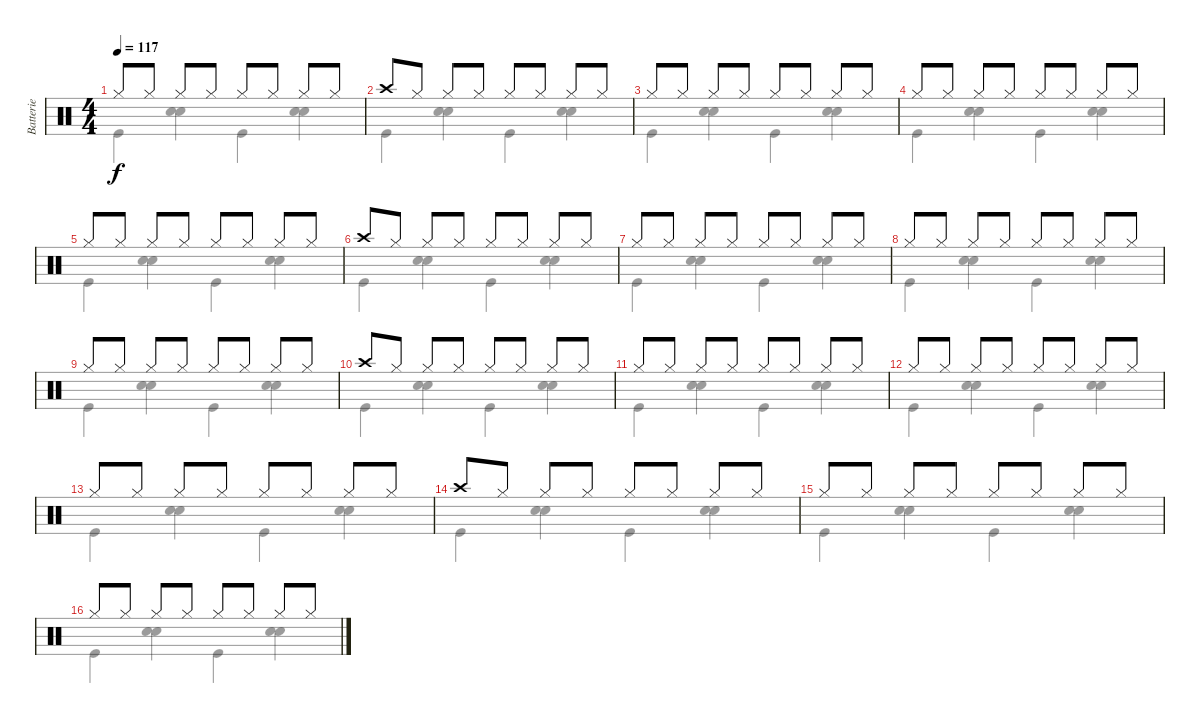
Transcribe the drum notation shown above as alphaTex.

\track ("Batterie" "Batterie") {instrument percussion}
\staff {score}
\articulation defaults
\voice
\ts (4 4)
\tempo 117
\clef neutral
\ks c "Hi-Hat (closed)".8{dy f} "Hi-Hat (closed)".8 "Hi-Hat (closed)".8 "Hi-Hat (closed)".8 "Hi-Hat (closed)".8 "Hi-Hat (closed)".8 "Hi-Hat (closed)".8 "Hi-Hat (closed)".8
|
"Crash high (hit)".8 "Hi-Hat (closed)".8 "Hi-Hat (closed)".8 "Hi-Hat (closed)".8 "Hi-Hat (closed)".8 "Hi-Hat (closed)".8 "Hi-Hat (closed)".8 "Hi-Hat (closed)".8 |
"Hi-Hat (closed)".8 "Hi-Hat (closed)".8 "Hi-Hat (closed)".8 "Hi-Hat (closed)".8 "Hi-Hat (closed)".8 "Hi-Hat (closed)".8 "Hi-Hat (closed)".8 "Hi-Hat (closed)".8 |
"Hi-Hat (closed)".8 "Hi-Hat (closed)".8 "Hi-Hat (closed)".8 "Hi-Hat (closed)".8 "Hi-Hat (closed)".8 "Hi-Hat (closed)".8 "Hi-Hat (closed)".8 "Hi-Hat (closed)".8 |
"Hi-Hat (closed)".8 "Hi-Hat (closed)".8 "Hi-Hat (closed)".8 "Hi-Hat (closed)".8 "Hi-Hat (closed)".8 "Hi-Hat (closed)".8 "Hi-Hat (closed)".8 "Hi-Hat (closed)".8 |
"Crash high (hit)".8{volume 9} "Hi-Hat (closed)".8 "Hi-Hat (closed)".8 "Hi-Hat (closed)".8 "Hi-Hat (closed)".8 "Hi-Hat (closed)".8 "Hi-Hat (closed)".8 "Hi-Hat (closed)".8 |
"Hi-Hat (closed)".8 "Hi-Hat (closed)".8 "Hi-Hat (closed)".8 "Hi-Hat (closed)".8 "Hi-Hat (closed)".8 "Hi-Hat (closed)".8 "Hi-Hat (closed)".8 "Hi-Hat (closed)".8 |
"Hi-Hat (closed)".8 "Hi-Hat (closed)".8 "Hi-Hat (closed)".8 "Hi-Hat (closed)".8 "Hi-Hat (closed)".8 "Hi-Hat (closed)".8 "Hi-Hat (closed)".8 "Hi-Hat (closed)".8 |
"Hi-Hat (closed)".8 "Hi-Hat (closed)".8 "Hi-Hat (closed)".8 "Hi-Hat (closed)".8 "Hi-Hat (closed)".8 "Hi-Hat (closed)".8 "Hi-Hat (closed)".8 "Hi-Hat (closed)".8 |
"Crash high (hit)".8{volume 3} "Hi-Hat (closed)".8 "Hi-Hat (closed)".8 "Hi-Hat (closed)".8 "Hi-Hat (closed)".8 "Hi-Hat (closed)".8 "Hi-Hat (closed)".8 "Hi-Hat (closed)".8 |
"Hi-Hat (closed)".8 "Hi-Hat (closed)".8 "Hi-Hat (closed)".8 "Hi-Hat (closed)".8 "Hi-Hat (closed)".8 "Hi-Hat (closed)".8 "Hi-Hat (closed)".8 "Hi-Hat (closed)".8 |
"Hi-Hat (closed)".8 "Hi-Hat (closed)".8 "Hi-Hat (closed)".8 "Hi-Hat (closed)".8 "Hi-Hat (closed)".8 "Hi-Hat (closed)".8 "Hi-Hat (closed)".8 "Hi-Hat (closed)".8 |
"Hi-Hat (closed)".8 "Hi-Hat (closed)".8 "Hi-Hat (closed)".8 "Hi-Hat (closed)".8 "Hi-Hat (closed)".8 "Hi-Hat (closed)".8 "Hi-Hat (closed)".8 "Hi-Hat (closed)".8 |
"Crash high (hit)".8{volume 0} "Hi-Hat (closed)".8 "Hi-Hat (closed)".8 "Hi-Hat (closed)".8 "Hi-Hat (closed)".8 "Hi-Hat (closed)".8 "Hi-Hat (closed)".8 "Hi-Hat (closed)".8 |
"Hi-Hat (closed)".8 "Hi-Hat (closed)".8 "Hi-Hat (closed)".8 "Hi-Hat (closed)".8 "Hi-Hat (closed)".8 "Hi-Hat (closed)".8 "Hi-Hat (closed)".8 "Hi-Hat (closed)".8 |
"Hi-Hat (closed)".8 "Hi-Hat (closed)".8 "Hi-Hat (closed)".8 "Hi-Hat (closed)".8 "Hi-Hat (closed)".8 "Hi-Hat (closed)".8 "Hi-Hat (closed)".8 "Hi-Hat (closed)".8
\voice
\clef neutral
\ottava regular
\simile none
\ks c "Kick (hit)".4{dy f}
("Hand Clap (hit)" "Snare (hit) 2").4 "Kick (hit)".4 ("Hand Clap (hit)" "Snare (hit) 2").4 |
"Kick (hit)".4 ("Hand Clap (hit)" "Snare (hit) 2").4 "Kick (hit)".4 ("Hand Clap (hit)" "Snare (hit) 2").4 |
"Kick (hit)".4 ("Hand Clap (hit)" "Snare (hit) 2").4 "Kick (hit)".4 ("Hand Clap (hit)" "Snare (hit) 2").4 |
"Kick (hit)".4 ("Hand Clap (hit)" "Snare (hit) 2").4 "Kick (hit)".4 ("Hand Clap (hit)" "Snare (hit) 2").4 |
"Kick (hit)".4 ("Hand Clap (hit)" "Snare (hit) 2").4 "Kick (hit)".4 ("Hand Clap (hit)" "Snare (hit) 2").4 |
"Kick (hit)".4 ("Hand Clap (hit)" "Snare (hit) 2").4 "Kick (hit)".4 ("Hand Clap (hit)" "Snare (hit) 2").4 |
"Kick (hit)".4 ("Hand Clap (hit)" "Snare (hit) 2").4 "Kick (hit)".4 ("Hand Clap (hit)" "Snare (hit) 2").4 |
"Kick (hit)".4 ("Hand Clap (hit)" "Snare (hit) 2").4 "Kick (hit)".4 ("Hand Clap (hit)" "Snare (hit) 2").4 |
"Kick (hit)".4 ("Hand Clap (hit)" "Snare (hit) 2").4 "Kick (hit)".4 ("Hand Clap (hit)" "Snare (hit) 2").4 |
"Kick (hit)".4 ("Hand Clap (hit)" "Snare (hit) 2").4 "Kick (hit)".4 ("Hand Clap (hit)" "Snare (hit) 2").4 |
"Kick (hit)".4 ("Hand Clap (hit)" "Snare (hit) 2").4 "Kick (hit)".4 ("Hand Clap (hit)" "Snare (hit) 2").4 |
"Kick (hit)".4 ("Hand Clap (hit)" "Snare (hit) 2").4 "Kick (hit)".4 ("Hand Clap (hit)" "Snare (hit) 2").4 |
"Kick (hit)".4 ("Hand Clap (hit)" "Snare (hit) 2").4 "Kick (hit)".4 ("Hand Clap (hit)" "Snare (hit) 2").4 |
"Kick (hit)".4 ("Hand Clap (hit)" "Snare (hit) 2").4 "Kick (hit)".4 ("Hand Clap (hit)" "Snare (hit) 2").4 |
"Kick (hit)".4 ("Hand Clap (hit)" "Snare (hit) 2").4 "Kick (hit)".4 ("Hand Clap (hit)" "Snare (hit) 2").4 |
"Kick (hit)".4 ("Hand Clap (hit)" "Snare (hit) 2").4 "Kick (hit)".4 ("Hand Clap (hit)" "Snare (hit) 2").4
